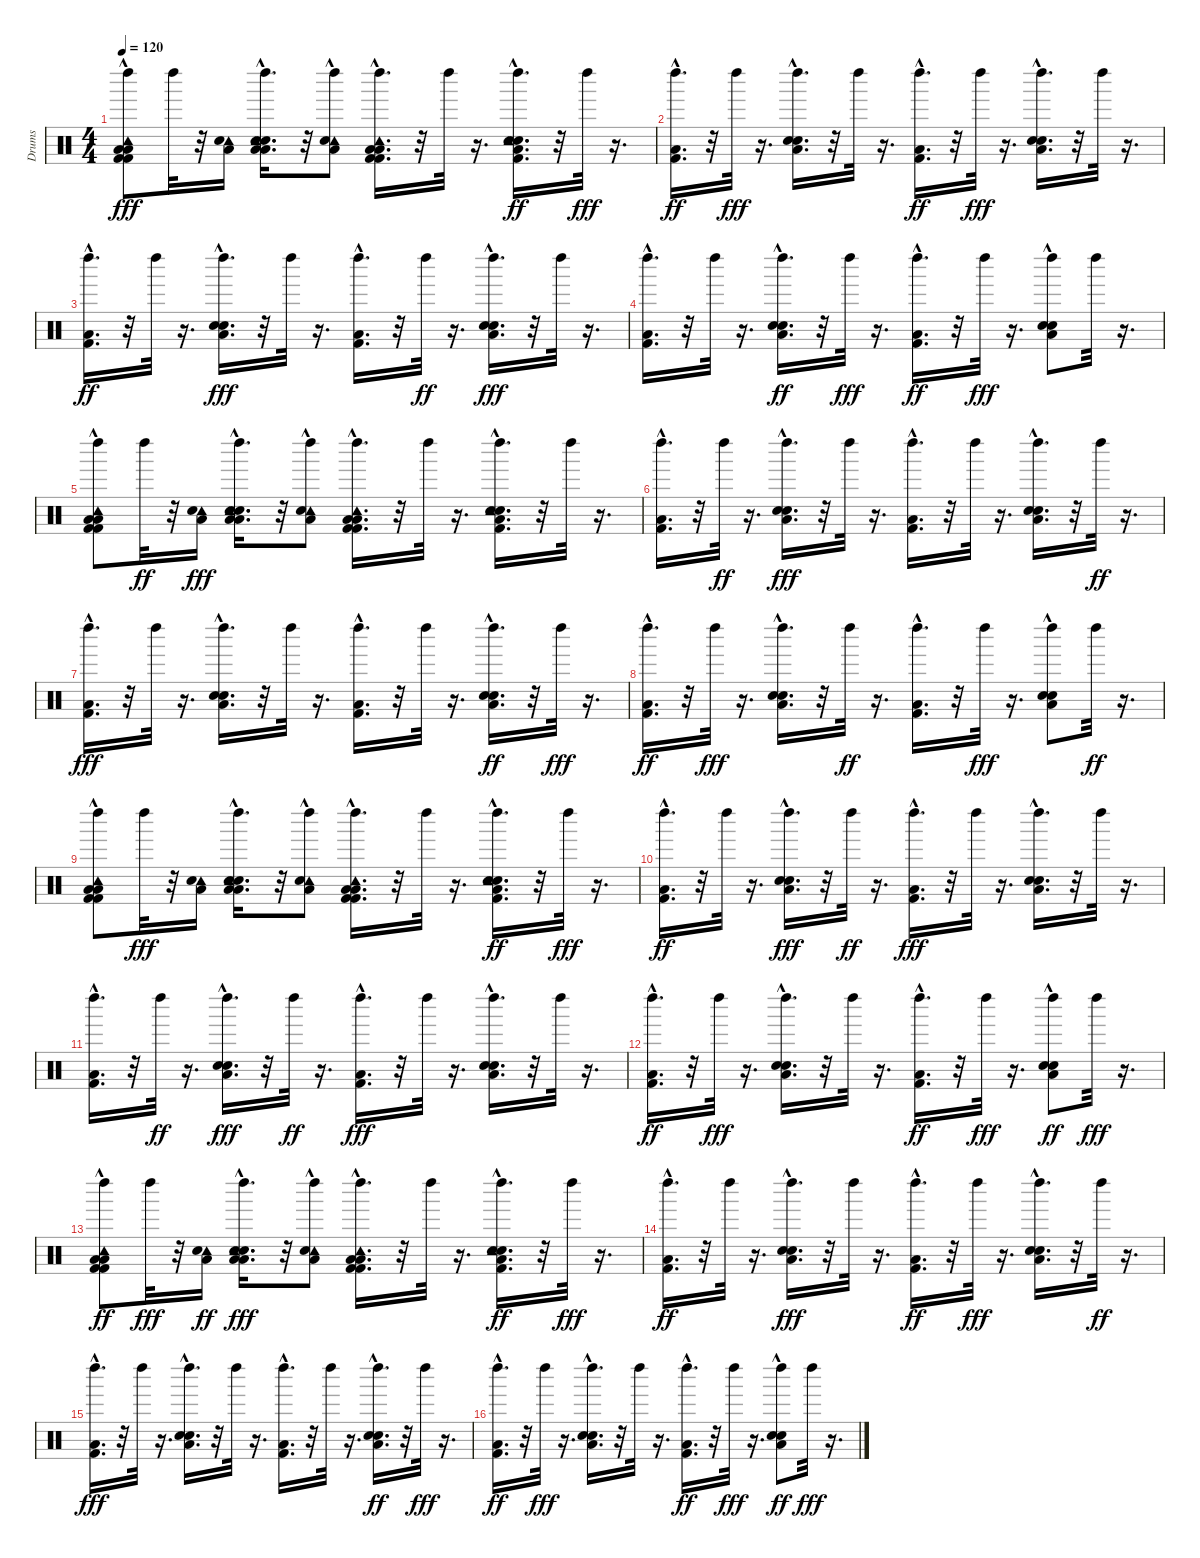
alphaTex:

\track ("Drums" "Drums") {instrument percussion}
\staff {score}
\articulation defaults
\ts (4 4)
\tempo 120
\clef neutral
\ks c
("Left Maraca (hit)" "Low Floor Tom (hit)"{hac} "Kick (hit) 2" "Tambourine (hit)" "Low Floor Tom (hit)"{hac} "Kick (hit) 2").8{dy fff} "Left Maraca (hit)".32 r.32 ("Tambourine (hit)" "Low Floor Tom (hit)" "Snare (hit) 2").16 ("Left Maraca (hit)" "Electric Snare (hit)"{hac} "Low Floor Tom (hit)"{hac} "Snare (hit) 2"{hac} "Tambourine (hit)" "Low Floor Tom (hit)"{hac}).16{d} r.32 ("Left Maraca (hit)" "Tambourine (hit)" "Low Floor Tom (hit)" "Snare (hit) 2"{hac}).8 ("Left Maraca (hit)" "Low Floor Tom (hit)"{hac} "Kick (hit) 2"{hac} "Tambourine (hit)" "Low Floor Tom (hit)"{hac} "Kick (hit) 2"{hac}).16{d} r.32 "Left Maraca (hit)".32 r.16{d} ("Left Maraca (hit)" "Electric Snare (hit)"{hac} "Low Floor Tom (hit)"{hac} "Snare (hit) 2"{hac} "Tambourine (hit)" "Kick (hit) 2").16{d dy ff} r.32 "Left Maraca (hit)".32{dy fff} r.16{d} |
("Left Maraca (hit)" "Low Floor Tom (hit)"{hac} "Kick (hit) 2"{hac}).16{d dy ff} r.32 "Left Maraca (hit)".32{dy fff} r.16{d} ("Left Maraca (hit)" "Electric Snare (hit)"{hac} "Low Floor Tom (hit)"{hac} "Snare (hit) 2"{hac}).16{d} r.32 "Left Maraca (hit)".32 r.16{d} ("Left Maraca (hit)" "Low Floor Tom (hit)"{hac} "Kick (hit) 2"{hac}).16{d dy ff} r.32 "Left Maraca (hit)".32{dy fff} r.16{d} ("Left Maraca (hit)" "Electric Snare (hit)"{hac} "Low Floor Tom (hit)"{hac} "Snare (hit) 2"{hac}).16{d} r.32 "Left Maraca (hit)".32 r.16{d} |
("Left Maraca (hit)" "Low Floor Tom (hit)"{hac} "Kick (hit) 2"{hac}).16{d dy ff} r.32 "Left Maraca (hit)".32 r.16{d} ("Left Maraca (hit)" "Electric Snare (hit)"{hac} "Low Floor Tom (hit)"{hac} "Snare (hit) 2"{hac}).16{d dy fff} r.32 "Left Maraca (hit)".32 r.16{d} ("Left Maraca (hit)" "Low Floor Tom (hit)"{hac} "Kick (hit) 2"{hac}).16{d} r.32 "Left Maraca (hit)".32{dy ff} r.16{d} ("Left Maraca (hit)" "Electric Snare (hit)"{hac} "Low Floor Tom (hit)"{hac} "Snare (hit) 2"{hac}).16{d dy fff} r.32 "Left Maraca (hit)".32 r.16{d} |
("Left Maraca (hit)" "Low Floor Tom (hit)"{hac} "Kick (hit) 2"{hac}).16{d} r.32 "Left Maraca (hit)".32 r.16{d} ("Left Maraca (hit)" "Electric Snare (hit)"{hac} "Low Floor Tom (hit)"{hac} "Snare (hit) 2"{hac}).16{d dy ff} r.32 "Left Maraca (hit)".32{dy fff} r.16{d} ("Left Maraca (hit)" "Low Floor Tom (hit)"{hac} "Kick (hit) 2"{hac}).16{d dy ff} r.32 "Left Maraca (hit)".32{dy fff} r.16{d} ("Left Maraca (hit)" "Electric Snare (hit)"{hac} "Low Floor Tom (hit)"{hac} "Snare (hit) 2").8 "Left Maraca (hit)".32 r.16{d} |
("Left Maraca (hit)" "Low Floor Tom (hit)"{hac} "Kick (hit) 2" "Tambourine (hit)" "Low Floor Tom (hit)"{hac} "Kick (hit) 2").8 "Left Maraca (hit)".32{dy ff} r.32 ("Tambourine (hit)" "Low Floor Tom (hit)" "Snare (hit) 2").16{dy fff} ("Left Maraca (hit)" "Electric Snare (hit)"{hac} "Low Floor Tom (hit)"{hac} "Snare (hit) 2"{hac} "Tambourine (hit)" "Low Floor Tom (hit)"{hac}).16{d} r.32 ("Left Maraca (hit)" "Tambourine (hit)" "Low Floor Tom (hit)" "Snare (hit) 2"{hac}).8 ("Left Maraca (hit)" "Low Floor Tom (hit)"{hac} "Kick (hit) 2"{hac} "Tambourine (hit)" "Low Floor Tom (hit)"{hac} "Kick (hit) 2"{hac}).16{d} r.32 "Left Maraca (hit)".32 r.16{d} ("Left Maraca (hit)" "Electric Snare (hit)"{hac} "Low Floor Tom (hit)"{hac} "Snare (hit) 2"{hac} "Tambourine (hit)" "Kick (hit) 2").16{d} r.32 "Left Maraca (hit)".32 r.16{d} |
("Left Maraca (hit)" "Low Floor Tom (hit)"{hac} "Kick (hit) 2"{hac}).16{d} r.32 "Left Maraca (hit)".32{dy ff} r.16{d} ("Left Maraca (hit)" "Electric Snare (hit)"{hac} "Low Floor Tom (hit)"{hac} "Snare (hit) 2"{hac}).16{d dy fff} r.32 "Left Maraca (hit)".32 r.16{d} ("Left Maraca (hit)" "Low Floor Tom (hit)"{hac} "Kick (hit) 2"{hac}).16{d} r.32 "Left Maraca (hit)".32 r.16{d} ("Left Maraca (hit)" "Electric Snare (hit)"{hac} "Low Floor Tom (hit)"{hac} "Snare (hit) 2"{hac}).16{d} r.32 "Left Maraca (hit)".32{dy ff} r.16{d} |
("Left Maraca (hit)" "Low Floor Tom (hit)"{hac} "Kick (hit) 2"{hac}).16{d dy fff} r.32 "Left Maraca (hit)".32 r.16{d} ("Left Maraca (hit)" "Electric Snare (hit)"{hac} "Low Floor Tom (hit)"{hac} "Snare (hit) 2"{hac}).16{d} r.32 "Left Maraca (hit)".32 r.16{d} ("Left Maraca (hit)" "Low Floor Tom (hit)"{hac} "Kick (hit) 2"{hac}).16{d} r.32 "Left Maraca (hit)".32 r.16{d} ("Left Maraca (hit)" "Electric Snare (hit)"{hac} "Low Floor Tom (hit)"{hac} "Snare (hit) 2"{hac}).16{d dy ff} r.32 "Left Maraca (hit)".32{dy fff} r.16{d} |
("Left Maraca (hit)" "Low Floor Tom (hit)"{hac} "Kick (hit) 2"{hac}).16{d dy ff} r.32 "Left Maraca (hit)".32{dy fff} r.16{d} ("Left Maraca (hit)" "Electric Snare (hit)"{hac} "Low Floor Tom (hit)"{hac} "Snare (hit) 2"{hac}).16{d} r.32 "Left Maraca (hit)".32{dy ff} r.16{d} ("Left Maraca (hit)" "Low Floor Tom (hit)"{hac} "Kick (hit) 2"{hac}).16{d} r.32 "Left Maraca (hit)".32{dy fff} r.16{d} ("Left Maraca (hit)" "Electric Snare (hit)"{hac} "Low Floor Tom (hit)"{hac} "Snare (hit) 2").8 "Left Maraca (hit)".32{dy ff} r.16{d} |
("Left Maraca (hit)" "Low Floor Tom (hit)"{hac} "Kick (hit) 2" "Tambourine (hit)" "Low Floor Tom (hit)"{hac} "Kick (hit) 2").8 "Left Maraca (hit)".32{dy fff} r.32 ("Tambourine (hit)" "Low Floor Tom (hit)" "Snare (hit) 2").16 ("Left Maraca (hit)" "Electric Snare (hit)"{hac} "Low Floor Tom (hit)"{hac} "Snare (hit) 2"{hac} "Tambourine (hit)" "Low Floor Tom (hit)"{hac}).16{d} r.32 ("Left Maraca (hit)" "Tambourine (hit)" "Low Floor Tom (hit)" "Snare (hit) 2"{hac}).8 ("Left Maraca (hit)" "Low Floor Tom (hit)"{hac} "Kick (hit) 2"{hac} "Tambourine (hit)" "Low Floor Tom (hit)"{hac} "Kick (hit) 2"{hac}).16{d} r.32 "Left Maraca (hit)".32 r.16{d} ("Left Maraca (hit)" "Electric Snare (hit)"{hac} "Low Floor Tom (hit)"{hac} "Snare (hit) 2"{hac} "Tambourine (hit)" "Kick (hit) 2").16{d dy ff} r.32 "Left Maraca (hit)".32{dy fff} r.16{d} |
("Left Maraca (hit)" "Low Floor Tom (hit)"{hac} "Kick (hit) 2"{hac}).16{d dy ff} r.32 "Left Maraca (hit)".32 r.16{d} ("Left Maraca (hit)" "Electric Snare (hit)"{hac} "Low Floor Tom (hit)"{hac} "Snare (hit) 2"{hac}).16{d dy fff} r.32 "Left Maraca (hit)".32{dy ff} r.16{d} ("Left Maraca (hit)" "Low Floor Tom (hit)"{hac} "Kick (hit) 2"{hac}).16{d dy fff} r.32 "Left Maraca (hit)".32 r.16{d} ("Left Maraca (hit)" "Electric Snare (hit)"{hac} "Low Floor Tom (hit)"{hac} "Snare (hit) 2"{hac}).16{d} r.32 "Left Maraca (hit)".32 r.16{d} |
("Left Maraca (hit)" "Low Floor Tom (hit)"{hac} "Kick (hit) 2"{hac}).16{d} r.32 "Left Maraca (hit)".32{dy ff} r.16{d} ("Left Maraca (hit)" "Electric Snare (hit)"{hac} "Low Floor Tom (hit)"{hac} "Snare (hit) 2"{hac}).16{d dy fff} r.32 "Left Maraca (hit)".32{dy ff} r.16{d} ("Left Maraca (hit)" "Low Floor Tom (hit)"{hac} "Kick (hit) 2"{hac}).16{d dy fff} r.32 "Left Maraca (hit)".32 r.16{d} ("Left Maraca (hit)" "Electric Snare (hit)"{hac} "Low Floor Tom (hit)"{hac} "Snare (hit) 2"{hac}).16{d} r.32 "Left Maraca (hit)".32 r.16{d} |
("Left Maraca (hit)" "Low Floor Tom (hit)"{hac} "Kick (hit) 2"{hac}).16{d dy ff} r.32 "Left Maraca (hit)".32{dy fff} r.16{d} ("Left Maraca (hit)" "Electric Snare (hit)"{hac} "Low Floor Tom (hit)"{hac} "Snare (hit) 2"{hac}).16{d} r.32 "Left Maraca (hit)".32 r.16{d} ("Left Maraca (hit)" "Low Floor Tom (hit)"{hac} "Kick (hit) 2"{hac}).16{d dy ff} r.32 "Left Maraca (hit)".32{dy fff} r.16{d} ("Left Maraca (hit)" "Electric Snare (hit)"{hac} "Low Floor Tom (hit)"{hac} "Snare (hit) 2").8{dy ff} "Left Maraca (hit)".32{dy fff} r.16{d} |
("Left Maraca (hit)" "Low Floor Tom (hit)"{hac} "Kick (hit) 2" "Tambourine (hit)" "Low Floor Tom (hit)"{hac} "Kick (hit) 2").8{dy ff} "Left Maraca (hit)".32{dy fff} r.32 ("Tambourine (hit)" "Low Floor Tom (hit)" "Snare (hit) 2").16{dy ff} ("Left Maraca (hit)" "Electric Snare (hit)"{hac} "Low Floor Tom (hit)"{hac} "Snare (hit) 2"{hac} "Tambourine (hit)" "Low Floor Tom (hit)"{hac}).16{d dy fff} r.32 ("Left Maraca (hit)" "Tambourine (hit)" "Low Floor Tom (hit)" "Snare (hit) 2"{hac}).8 ("Left Maraca (hit)" "Low Floor Tom (hit)"{hac} "Kick (hit) 2"{hac} "Tambourine (hit)" "Low Floor Tom (hit)"{hac} "Kick (hit) 2"{hac}).16{d} r.32 "Left Maraca (hit)".32 r.16{d} ("Left Maraca (hit)" "Electric Snare (hit)"{hac} "Low Floor Tom (hit)"{hac} "Snare (hit) 2"{hac} "Tambourine (hit)" "Kick (hit) 2").16{d dy ff} r.32 "Left Maraca (hit)".32{dy fff} r.16{d} |
("Left Maraca (hit)" "Low Floor Tom (hit)"{hac} "Kick (hit) 2"{hac}).16{d dy ff} r.32 "Left Maraca (hit)".32 r.16{d} ("Left Maraca (hit)" "Electric Snare (hit)"{hac} "Low Floor Tom (hit)"{hac} "Snare (hit) 2"{hac}).16{d dy fff} r.32 "Left Maraca (hit)".32 r.16{d} ("Left Maraca (hit)" "Low Floor Tom (hit)"{hac} "Kick (hit) 2"{hac}).16{d dy ff} r.32 "Left Maraca (hit)".32{dy fff} r.16{d} ("Left Maraca (hit)" "Electric Snare (hit)"{hac} "Low Floor Tom (hit)"{hac} "Snare (hit) 2"{hac}).16{d} r.32 "Left Maraca (hit)".32{dy ff} r.16{d} |
("Left Maraca (hit)" "Low Floor Tom (hit)"{hac} "Kick (hit) 2"{hac}).16{d dy fff} r.32 "Left Maraca (hit)".32 r.16{d} ("Left Maraca (hit)" "Electric Snare (hit)"{hac} "Low Floor Tom (hit)"{hac} "Snare (hit) 2"{hac}).16{d} r.32 "Left Maraca (hit)".32 r.16{d} ("Left Maraca (hit)" "Low Floor Tom (hit)"{hac} "Kick (hit) 2"{hac}).16{d} r.32 "Left Maraca (hit)".32 r.16{d} ("Left Maraca (hit)" "Electric Snare (hit)"{hac} "Low Floor Tom (hit)"{hac} "Snare (hit) 2"{hac}).16{d dy ff} r.32 "Left Maraca (hit)".32{dy fff} r.16{d} |
("Left Maraca (hit)" "Low Floor Tom (hit)"{hac} "Kick (hit) 2"{hac}).16{d dy ff} r.32 "Left Maraca (hit)".32{dy fff} r.16{d} ("Left Maraca (hit)" "Electric Snare (hit)"{hac} "Low Floor Tom (hit)"{hac} "Snare (hit) 2"{hac}).16{d} r.32 "Left Maraca (hit)".32 r.16{d} ("Left Maraca (hit)" "Low Floor Tom (hit)"{hac} "Kick (hit) 2"{hac}).16{d dy ff} r.32 "Left Maraca (hit)".32{dy fff} r.16{d} ("Left Maraca (hit)" "Electric Snare (hit)"{hac} "Low Floor Tom (hit)"{hac} "Snare (hit) 2").8{dy ff} "Left Maraca (hit)".32{dy fff} r.16{d}
